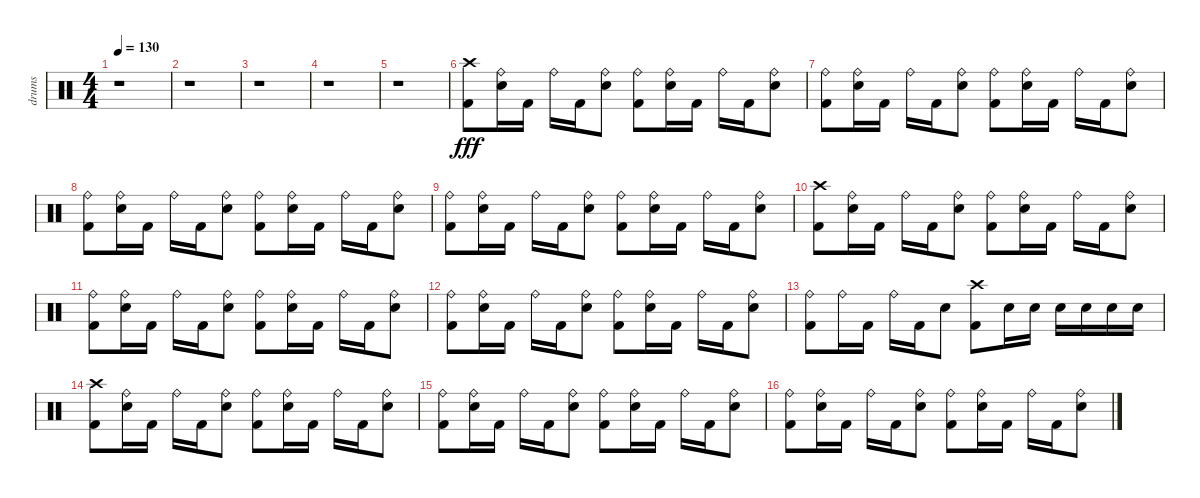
\track ("drums" "drums") {instrument percussion}
\staff {score}
\articulation defaults
\ts (4 4)
\tempo 130
\clef neutral
\ks c
r.1{dy fff} |
r.1 |
r.1 |
r.1 |
r.1 |
("Crash high (hit)" "Kick (hit) 2").8 ("Ride (bell)" "Snare (hit) 2").16 "Kick (hit) 2".16 "Ride (bell)".16 "Kick (hit) 2".16 ("Ride (bell)" "Snare (hit) 2").8 ("Ride (bell)" "Kick (hit) 2").8 ("Ride (bell)" "Snare (hit) 2").16 "Kick (hit) 2".16 "Ride (bell)".16 "Kick (hit) 2".16 ("Ride (bell)" "Snare (hit) 2").8 |
("Ride (bell)" "Kick (hit) 2").8 ("Ride (bell)" "Snare (hit) 2").16 "Kick (hit) 2".16 "Ride (bell)".16 "Kick (hit) 2".16 ("Ride (bell)" "Snare (hit) 2").8 ("Ride (bell)" "Kick (hit) 2").8 ("Ride (bell)" "Snare (hit) 2").16 "Kick (hit) 2".16 "Ride (bell)".16 "Kick (hit) 2".16 ("Ride (bell)" "Snare (hit) 2").8 |
("Ride (bell)" "Kick (hit) 2").8 ("Ride (bell)" "Snare (hit) 2").16 "Kick (hit) 2".16 "Ride (bell)".16 "Kick (hit) 2".16 ("Ride (bell)" "Snare (hit) 2").8 ("Ride (bell)" "Kick (hit) 2").8 ("Ride (bell)" "Snare (hit) 2").16 "Kick (hit) 2".16 "Ride (bell)".16 "Kick (hit) 2".16 ("Ride (bell)" "Snare (hit) 2").8 |
("Ride (bell)" "Kick (hit) 2").8 ("Ride (bell)" "Snare (hit) 2").16 "Kick (hit) 2".16 "Ride (bell)".16 "Kick (hit) 2".16 ("Ride (bell)" "Snare (hit) 2").8 ("Ride (bell)" "Kick (hit) 2").8 ("Ride (bell)" "Snare (hit) 2").16 "Kick (hit) 2".16 "Ride (bell)".16 "Kick (hit) 2".16 ("Ride (bell)" "Snare (hit) 2").8 |
("Crash high (hit)" "Kick (hit) 2").8 ("Ride (bell)" "Snare (hit) 2").16 "Kick (hit) 2".16 "Ride (bell)".16 "Kick (hit) 2".16 ("Ride (bell)" "Snare (hit) 2").8 ("Ride (bell)" "Kick (hit) 2").8 ("Ride (bell)" "Snare (hit) 2").16 "Kick (hit) 2".16 "Ride (bell)".16 "Kick (hit) 2".16 ("Ride (bell)" "Snare (hit) 2").8 |
("Ride (bell)" "Kick (hit) 2").8 ("Ride (bell)" "Snare (hit) 2").16 "Kick (hit) 2".16 "Ride (bell)".16 "Kick (hit) 2".16 ("Ride (bell)" "Snare (hit) 2").8 ("Ride (bell)" "Kick (hit) 2").8 ("Ride (bell)" "Snare (hit) 2").16 "Kick (hit) 2".16 "Ride (bell)".16 "Kick (hit) 2".16 ("Ride (bell)" "Snare (hit) 2").8 |
("Ride (bell)" "Kick (hit) 2").8 ("Ride (bell)" "Snare (hit) 2").16 "Kick (hit) 2".16 "Ride (bell)".16 "Kick (hit) 2".16 ("Ride (bell)" "Snare (hit) 2").8 ("Ride (bell)" "Kick (hit) 2").8 ("Ride (bell)" "Snare (hit) 2").16 "Kick (hit) 2".16 "Ride (bell)".16 "Kick (hit) 2".16 ("Ride (bell)" "Snare (hit) 2").8 |
("Kick (hit) 2" "Ride (bell)").8 "Ride (bell)".16 "Kick (hit) 2".16 "Ride (bell)".16 "Kick (hit) 2".16 "Snare (hit) 2".8 ("Crash high (hit)" "Kick (hit) 2").8 "Snare (hit) 2".16 "Snare (hit) 2".16 "Snare (hit) 2".16 "Snare (hit) 2".16 "Snare (hit) 2".16 "Snare (hit) 2".16 |
("Crash high (hit)" "Kick (hit) 2").8 ("Ride (bell)" "Snare (hit) 2").16 "Kick (hit) 2".16 "Ride (bell)".16 "Kick (hit) 2".16 ("Ride (bell)" "Snare (hit) 2").8 ("Ride (bell)" "Kick (hit) 2").8 ("Ride (bell)" "Snare (hit) 2").16 "Kick (hit) 2".16 "Ride (bell)".16 "Kick (hit) 2".16 ("Ride (bell)" "Snare (hit) 2").8 |
("Ride (bell)" "Kick (hit) 2").8 ("Ride (bell)" "Snare (hit) 2").16 "Kick (hit) 2".16 "Ride (bell)".16 "Kick (hit) 2".16 ("Ride (bell)" "Snare (hit) 2").8 ("Ride (bell)" "Kick (hit) 2").8 ("Ride (bell)" "Snare (hit) 2").16 "Kick (hit) 2".16 "Ride (bell)".16 "Kick (hit) 2".16 ("Ride (bell)" "Snare (hit) 2").8 |
("Ride (bell)" "Kick (hit) 2").8 ("Ride (bell)" "Snare (hit) 2").16 "Kick (hit) 2".16 "Ride (bell)".16 "Kick (hit) 2".16 ("Ride (bell)" "Snare (hit) 2").8 ("Ride (bell)" "Kick (hit) 2").8 ("Ride (bell)" "Snare (hit) 2").16 "Kick (hit) 2".16 "Ride (bell)".16 "Kick (hit) 2".16 ("Ride (bell)" "Snare (hit) 2").8
